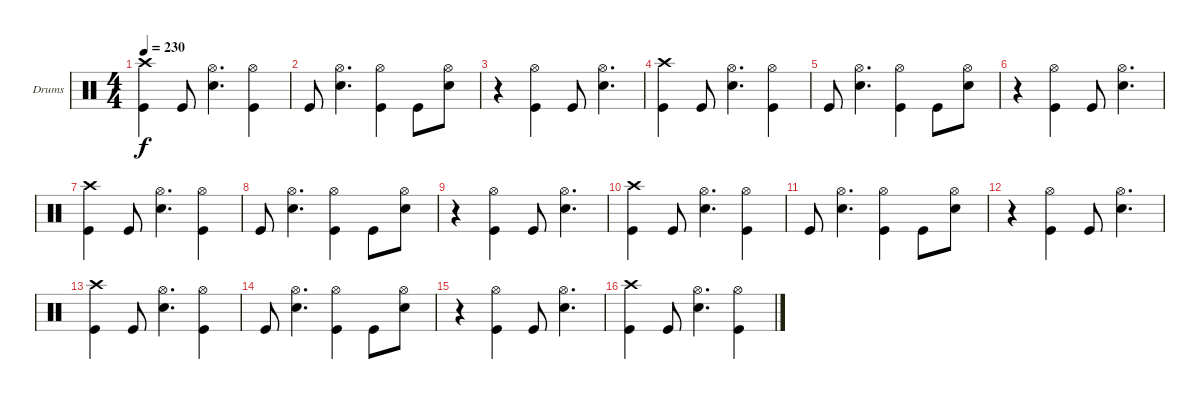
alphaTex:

\bracketExtendMode groupsimilarinstruments
\firstSystemTrackNameOrientation horizontal
\otherSystemsTrackNameOrientation horizontal
\track ("Drumkit" "Drums") {instrument percussion}
\staff {score}
\articulation defaults
\ts (4 4)
\tempo 230
\clef neutral
\ks c
("Crash high (hit)" "Kick (hit)").4{dy f} "Kick (hit)".8 ("Hi-Hat (open)" "Snare (hit) 2").4{d} ("Hi-Hat (open)" "Kick (hit)").4 |
"Kick (hit)".8 ("Hi-Hat (open)" "Snare (hit) 2").4{d} ("Hi-Hat (open)" "Kick (hit)").4 "Kick (hit)".8 ("Hi-Hat (open)" "Snare (hit) 2").8 |
r.4 ("Hi-Hat (open)" "Kick (hit)").4 "Kick (hit)".8 ("Hi-Hat (open)" "Snare (hit) 2").4{d} |
("Crash high (hit)" "Kick (hit)").4 "Kick (hit)".8 ("Hi-Hat (open)" "Snare (hit) 2").4{d} ("Hi-Hat (open)" "Kick (hit)").4 |
"Kick (hit)".8 ("Hi-Hat (open)" "Snare (hit) 2").4{d} ("Hi-Hat (open)" "Kick (hit)").4 "Kick (hit)".8 ("Hi-Hat (open)" "Snare (hit) 2").8 |
r.4 ("Hi-Hat (open)" "Kick (hit)").4 "Kick (hit)".8 ("Hi-Hat (open)" "Snare (hit) 2").4{d} |
("Crash high (hit)" "Kick (hit)").4 "Kick (hit)".8 ("Hi-Hat (open)" "Snare (hit) 2").4{d} ("Hi-Hat (open)" "Kick (hit)").4 |
"Kick (hit)".8 ("Hi-Hat (open)" "Snare (hit) 2").4{d} ("Hi-Hat (open)" "Kick (hit)").4 "Kick (hit)".8 ("Hi-Hat (open)" "Snare (hit) 2").8 |
r.4 ("Hi-Hat (open)" "Kick (hit)").4 "Kick (hit)".8 ("Hi-Hat (open)" "Snare (hit) 2").4{d} |
("Crash high (hit)" "Kick (hit)").4 "Kick (hit)".8 ("Hi-Hat (open)" "Snare (hit) 2").4{d} ("Hi-Hat (open)" "Kick (hit)").4 |
"Kick (hit)".8 ("Hi-Hat (open)" "Snare (hit) 2").4{d} ("Hi-Hat (open)" "Kick (hit)").4 "Kick (hit)".8 ("Hi-Hat (open)" "Snare (hit) 2").8 |
r.4 ("Hi-Hat (open)" "Kick (hit)").4 "Kick (hit)".8 ("Hi-Hat (open)" "Snare (hit) 2").4{d} |
("Crash high (hit)" "Kick (hit)").4 "Kick (hit)".8 ("Hi-Hat (open)" "Snare (hit) 2").4{d} ("Hi-Hat (open)" "Kick (hit)").4 |
"Kick (hit)".8 ("Hi-Hat (open)" "Snare (hit) 2").4{d} ("Hi-Hat (open)" "Kick (hit)").4 "Kick (hit)".8 ("Hi-Hat (open)" "Snare (hit) 2").8 |
r.4 ("Hi-Hat (open)" "Kick (hit)").4 "Kick (hit)".8 ("Hi-Hat (open)" "Snare (hit) 2").4{d} |
("Crash high (hit)" "Kick (hit)").4 "Kick (hit)".8 ("Hi-Hat (open)" "Snare (hit) 2").4{d} ("Hi-Hat (open)" "Kick (hit)").4
